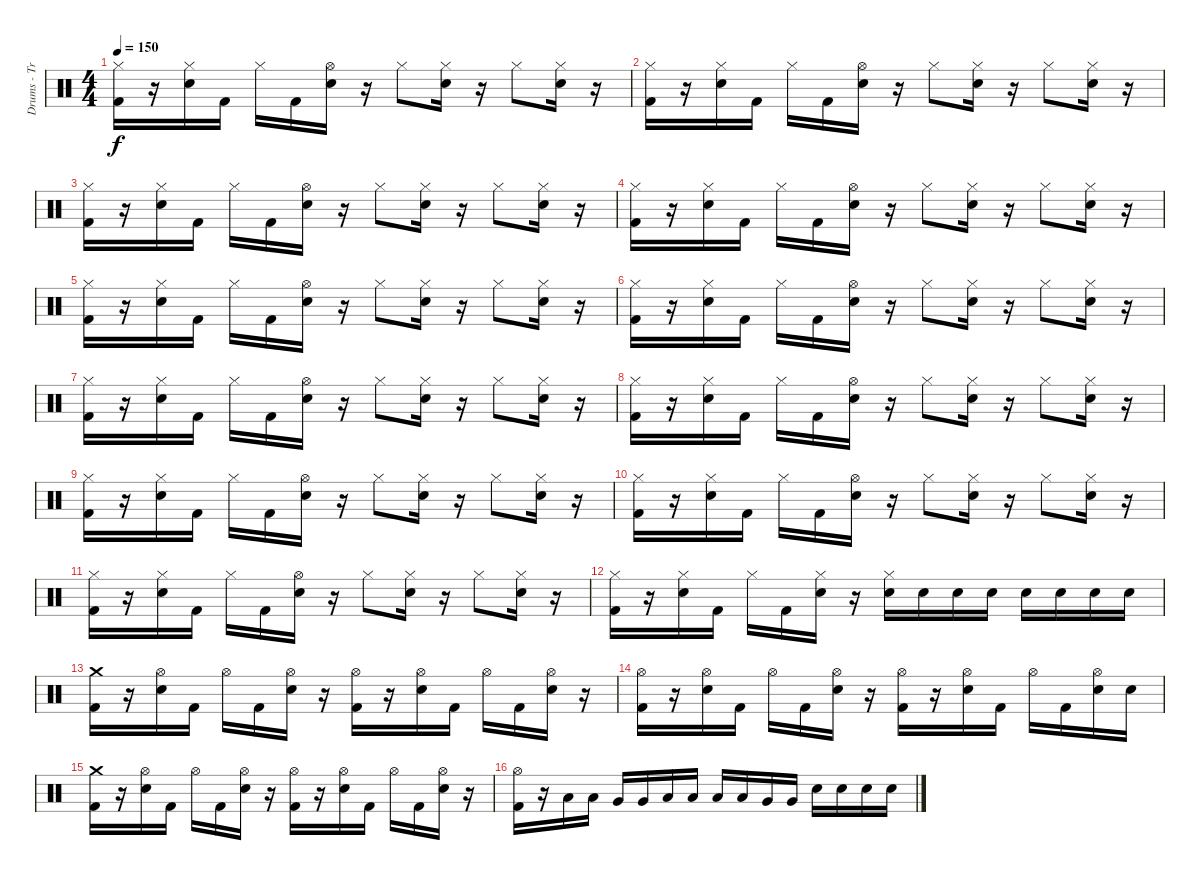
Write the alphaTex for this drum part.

\track ("Drums - Travis Barker" "Drums - Tr") {instrument percussion}
\staff {score}
\articulation defaults
\ts (4 4)
\tempo 150
\clef neutral
\ks c
("Hi-Hat (closed)" "Kick (hit) 2").16{dy f} r.16 ("Hi-Hat (closed)" "Electric Snare (hit)").16 "Kick (hit) 2".16 "Hi-Hat (closed)".16 "Kick (hit) 2".16 ("Hi-Hat (open)" "Electric Snare (hit)").16 r.16 "Hi-Hat (closed)".8 ("Hi-Hat (closed)" "Electric Snare (hit)").16 r.16 "Hi-Hat (closed)".8 ("Hi-Hat (closed)" "Electric Snare (hit)").16 r.16 |
("Hi-Hat (closed)" "Kick (hit) 2").16 r.16 ("Hi-Hat (closed)" "Electric Snare (hit)").16 "Kick (hit) 2".16 "Hi-Hat (closed)".16 "Kick (hit) 2".16 ("Hi-Hat (open)" "Electric Snare (hit)").16 r.16 "Hi-Hat (closed)".8 ("Hi-Hat (closed)" "Electric Snare (hit)").16 r.16 "Hi-Hat (closed)".8 ("Hi-Hat (closed)" "Electric Snare (hit)").16 r.16 |
("Hi-Hat (closed)" "Kick (hit) 2").16 r.16 ("Hi-Hat (closed)" "Electric Snare (hit)").16 "Kick (hit) 2".16 "Hi-Hat (closed)".16 "Kick (hit) 2".16 ("Hi-Hat (open)" "Electric Snare (hit)").16 r.16 "Hi-Hat (closed)".8 ("Hi-Hat (closed)" "Electric Snare (hit)").16 r.16 "Hi-Hat (closed)".8 ("Hi-Hat (closed)" "Electric Snare (hit)").16 r.16 |
("Hi-Hat (closed)" "Kick (hit) 2").16 r.16 ("Hi-Hat (closed)" "Electric Snare (hit)").16 "Kick (hit) 2".16 "Hi-Hat (closed)".16 "Kick (hit) 2".16 ("Hi-Hat (open)" "Electric Snare (hit)").16 r.16 "Hi-Hat (closed)".8 ("Hi-Hat (closed)" "Electric Snare (hit)").16 r.16 "Hi-Hat (closed)".8 ("Hi-Hat (closed)" "Electric Snare (hit)").16 r.16 |
("Hi-Hat (closed)" "Kick (hit) 2").16 r.16 ("Hi-Hat (closed)" "Electric Snare (hit)").16 "Kick (hit) 2".16 "Hi-Hat (closed)".16 "Kick (hit) 2".16 ("Hi-Hat (open)" "Electric Snare (hit)").16 r.16 "Hi-Hat (closed)".8 ("Hi-Hat (closed)" "Electric Snare (hit)").16 r.16 "Hi-Hat (closed)".8 ("Hi-Hat (closed)" "Electric Snare (hit)").16 r.16 |
("Hi-Hat (closed)" "Kick (hit) 2").16 r.16 ("Hi-Hat (closed)" "Electric Snare (hit)").16 "Kick (hit) 2".16 "Hi-Hat (closed)".16 "Kick (hit) 2".16 ("Hi-Hat (open)" "Electric Snare (hit)").16 r.16 "Hi-Hat (closed)".8 ("Hi-Hat (closed)" "Electric Snare (hit)").16 r.16 "Hi-Hat (closed)".8 ("Hi-Hat (closed)" "Electric Snare (hit)").16 r.16 |
("Hi-Hat (closed)" "Kick (hit) 2").16 r.16 ("Hi-Hat (closed)" "Electric Snare (hit)").16 "Kick (hit) 2".16 "Hi-Hat (closed)".16 "Kick (hit) 2".16 ("Hi-Hat (open)" "Electric Snare (hit)").16 r.16 "Hi-Hat (closed)".8 ("Hi-Hat (closed)" "Electric Snare (hit)").16 r.16 "Hi-Hat (closed)".8 ("Hi-Hat (closed)" "Electric Snare (hit)").16 r.16 |
("Hi-Hat (closed)" "Kick (hit) 2").16 r.16 ("Hi-Hat (closed)" "Electric Snare (hit)").16 "Kick (hit) 2".16 "Hi-Hat (closed)".16 "Kick (hit) 2".16 ("Hi-Hat (open)" "Electric Snare (hit)").16 r.16 "Hi-Hat (closed)".8 ("Hi-Hat (closed)" "Electric Snare (hit)").16 r.16 "Hi-Hat (closed)".8 ("Hi-Hat (closed)" "Electric Snare (hit)").16 r.16 |
("Hi-Hat (closed)" "Kick (hit) 2").16 r.16 ("Hi-Hat (closed)" "Electric Snare (hit)").16 "Kick (hit) 2".16 "Hi-Hat (closed)".16 "Kick (hit) 2".16 ("Hi-Hat (open)" "Electric Snare (hit)").16 r.16 "Hi-Hat (closed)".8 ("Hi-Hat (closed)" "Electric Snare (hit)").16 r.16 "Hi-Hat (closed)".8 ("Hi-Hat (closed)" "Electric Snare (hit)").16 r.16 |
("Hi-Hat (closed)" "Kick (hit) 2").16 r.16 ("Hi-Hat (closed)" "Electric Snare (hit)").16 "Kick (hit) 2".16 "Hi-Hat (closed)".16 "Kick (hit) 2".16 ("Hi-Hat (open)" "Electric Snare (hit)").16 r.16 "Hi-Hat (closed)".8 ("Hi-Hat (closed)" "Electric Snare (hit)").16 r.16 "Hi-Hat (closed)".8 ("Hi-Hat (closed)" "Electric Snare (hit)").16 r.16 |
("Hi-Hat (closed)" "Kick (hit) 2").16 r.16 ("Hi-Hat (closed)" "Electric Snare (hit)").16 "Kick (hit) 2".16 "Hi-Hat (closed)".16 "Kick (hit) 2".16 ("Hi-Hat (open)" "Electric Snare (hit)").16 r.16 "Hi-Hat (closed)".8 ("Hi-Hat (closed)" "Electric Snare (hit)").16 r.16 "Hi-Hat (closed)".8 ("Hi-Hat (closed)" "Electric Snare (hit)").16 r.16 |
("Hi-Hat (closed)" "Kick (hit) 2").16 r.16 ("Hi-Hat (closed)" "Electric Snare (hit)").16 "Kick (hit) 2".16 "Hi-Hat (closed)".16 "Kick (hit) 2".16 ("Hi-Hat (closed)" "Electric Snare (hit)").16 r.16 ("Hi-Hat (closed)" "Electric Snare (hit)").16 "Electric Snare (hit)".16 "Electric Snare (hit)".16 "Electric Snare (hit)".16 "Electric Snare (hit)".16 "Electric Snare (hit)".16 "Electric Snare (hit)".16 "Electric Snare (hit)".16 |
("Crash medium (hit)" "Kick (hit) 2").16 r.16 ("Hi-Hat (open)" "Electric Snare (hit)").16 "Kick (hit) 2".16 "Hi-Hat (open)".16 "Kick (hit) 2".16 ("Hi-Hat (open)" "Electric Snare (hit)").16 r.16 ("Hi-Hat (open)" "Kick (hit) 2").16 r.16 ("Hi-Hat (open)" "Electric Snare (hit)").16 "Kick (hit) 2".16 "Hi-Hat (open)".16 "Kick (hit) 2".16 ("Hi-Hat (open)" "Electric Snare (hit)").16 r.16 |
("Hi-Hat (open)" "Kick (hit) 2").16 r.16 ("Hi-Hat (open)" "Electric Snare (hit)").16 "Kick (hit) 2".16 "Hi-Hat (open)".16 "Kick (hit) 2".16 ("Hi-Hat (open)" "Electric Snare (hit)").16 r.16 ("Hi-Hat (open)" "Kick (hit) 2").16 r.16 ("Hi-Hat (open)" "Electric Snare (hit)").16 "Kick (hit) 2".16 "Hi-Hat (open)".16 "Kick (hit) 2".16 ("Hi-Hat (open)" "Electric Snare (hit)").16 "Electric Snare (hit)".16 |
("Crash medium (hit)" "Kick (hit) 2").16 r.16 ("Hi-Hat (open)" "Electric Snare (hit)").16 "Kick (hit) 2".16 "Hi-Hat (open)".16 "Kick (hit) 2".16 ("Hi-Hat (open)" "Electric Snare (hit)").16 r.16 ("Hi-Hat (open)" "Kick (hit) 2").16 r.16 ("Hi-Hat (open)" "Electric Snare (hit)").16 "Kick (hit) 2".16 "Hi-Hat (open)".16 "Kick (hit) 2".16 ("Hi-Hat (open)" "Electric Snare (hit)").16 r.16 |
("Hi-Hat (open)" "Kick (hit) 2").16 r.16 "Low Tom (hit)".16 "Low Tom (hit)".16 "Very Low Tom (hit)".16 "Very Low Tom (hit)".16 "Low Floor Tom (hit)".16 "Low Floor Tom (hit)".16 "Low Tom (hit)".16 "Low Tom (hit)".16 "Very Low Tom (hit)".16 "Very Low Tom (hit)".16 "Electric Snare (hit)".16 "Electric Snare (hit)".16 "Electric Snare (hit)".16 "Electric Snare (hit)".16
